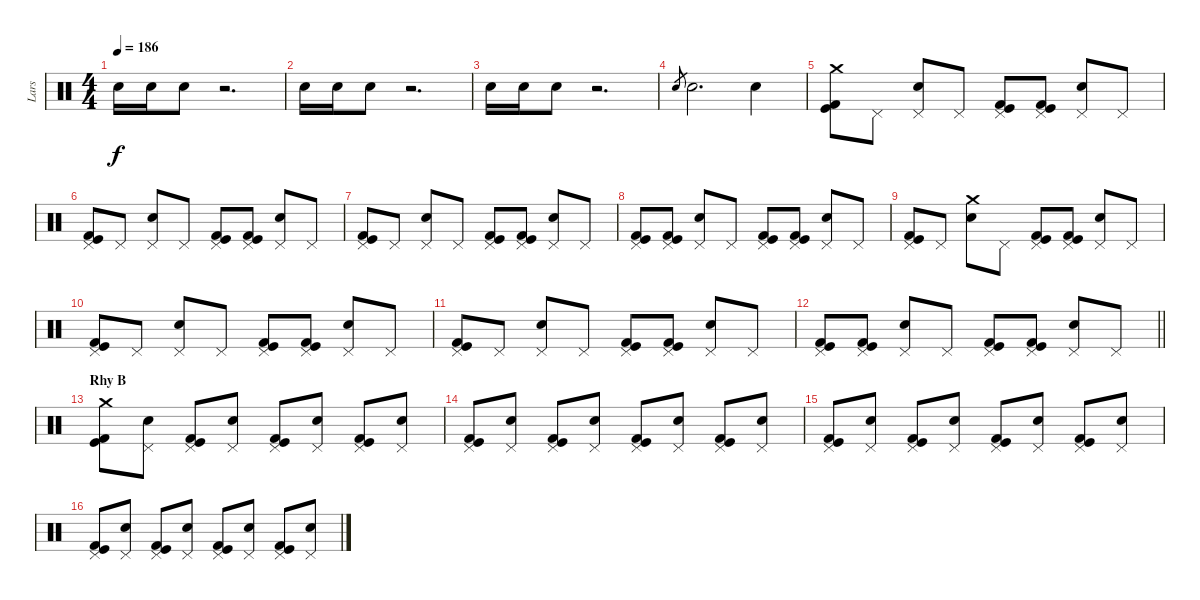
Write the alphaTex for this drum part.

\track ("Lars" "Lars") {instrument percussion}
\staff {score}
\articulation defaults
\ts (4 4)
\tempo 186
\clef neutral
\ks c "Electric Snare (hit)".16{dy f} "Electric Snare (hit)".16 "Electric Snare (hit)".8
r.2{d} |
"Electric Snare (hit)".16 "Electric Snare (hit)".16 "Electric Snare (hit)".8 r.2{d} |
"Electric Snare (hit)".16 "Electric Snare (hit)".16 "Electric Snare (hit)".8 r.2{d} |
"Electric Snare (hit)".8{gr} "Electric Snare (hit)".2{d} "Electric Snare (hit)".4 |
("Crash medium (hit)" "Kick (hit)" "Kick (hit) 2").8 "Pedal Hi-Hat (hit)".8 ("Pedal Hi-Hat (hit)" "Electric Snare (hit)").8 "Pedal Hi-Hat (hit)".8 ("Pedal Hi-Hat (hit)" "Kick (hit)" "Kick (hit) 2").8 ("Pedal Hi-Hat (hit)" "Kick (hit)" "Kick (hit) 2").8 ("Pedal Hi-Hat (hit)" "Electric Snare (hit)").8 "Pedal Hi-Hat (hit)".8 |
("Pedal Hi-Hat (hit)" "Kick (hit)" "Kick (hit) 2").8 "Pedal Hi-Hat (hit)".8 ("Pedal Hi-Hat (hit)" "Electric Snare (hit)").8 "Pedal Hi-Hat (hit)".8 ("Pedal Hi-Hat (hit)" "Kick (hit)" "Kick (hit) 2").8 ("Pedal Hi-Hat (hit)" "Kick (hit)" "Kick (hit) 2").8 ("Pedal Hi-Hat (hit)" "Electric Snare (hit)").8 "Pedal Hi-Hat (hit)".8 |
("Pedal Hi-Hat (hit)" "Kick (hit)" "Kick (hit) 2").8 "Pedal Hi-Hat (hit)".8 ("Pedal Hi-Hat (hit)" "Electric Snare (hit)").8 "Pedal Hi-Hat (hit)".8 ("Pedal Hi-Hat (hit)" "Kick (hit)" "Kick (hit) 2").8 ("Pedal Hi-Hat (hit)" "Kick (hit)" "Kick (hit) 2").8 ("Pedal Hi-Hat (hit)" "Electric Snare (hit)").8 "Pedal Hi-Hat (hit)".8 |
("Pedal Hi-Hat (hit)" "Kick (hit)" "Kick (hit) 2").8 ("Pedal Hi-Hat (hit)" "Kick (hit)" "Kick (hit) 2").8 ("Pedal Hi-Hat (hit)" "Electric Snare (hit)").8 "Pedal Hi-Hat (hit)".8 ("Pedal Hi-Hat (hit)" "Kick (hit)" "Kick (hit) 2").8 ("Pedal Hi-Hat (hit)" "Kick (hit)" "Kick (hit) 2").8 ("Pedal Hi-Hat (hit)" "Electric Snare (hit)").8 "Pedal Hi-Hat (hit)".8 |
("Pedal Hi-Hat (hit)" "Kick (hit)" "Kick (hit) 2").8 "Pedal Hi-Hat (hit)".8 ("Crash medium (hit)" "Electric Snare (hit)").8 "Pedal Hi-Hat (hit)".8 ("Pedal Hi-Hat (hit)" "Kick (hit)" "Kick (hit) 2").8 ("Pedal Hi-Hat (hit)" "Kick (hit)" "Kick (hit) 2").8 ("Pedal Hi-Hat (hit)" "Electric Snare (hit)").8 "Pedal Hi-Hat (hit)".8 |
("Pedal Hi-Hat (hit)" "Kick (hit)" "Kick (hit) 2").8 "Pedal Hi-Hat (hit)".8 ("Pedal Hi-Hat (hit)" "Electric Snare (hit)").8 "Pedal Hi-Hat (hit)".8 ("Pedal Hi-Hat (hit)" "Kick (hit)" "Kick (hit) 2").8 ("Pedal Hi-Hat (hit)" "Kick (hit)" "Kick (hit) 2").8 ("Pedal Hi-Hat (hit)" "Electric Snare (hit)").8 "Pedal Hi-Hat (hit)".8 |
("Pedal Hi-Hat (hit)" "Kick (hit)" "Kick (hit) 2").8 "Pedal Hi-Hat (hit)".8 ("Pedal Hi-Hat (hit)" "Electric Snare (hit)").8 "Pedal Hi-Hat (hit)".8 ("Pedal Hi-Hat (hit)" "Kick (hit)" "Kick (hit) 2").8 ("Pedal Hi-Hat (hit)" "Kick (hit)" "Kick (hit) 2").8 ("Pedal Hi-Hat (hit)" "Electric Snare (hit)").8 "Pedal Hi-Hat (hit)".8 |
\barLineRight lightlight
("Pedal Hi-Hat (hit)" "Kick (hit)" "Kick (hit) 2").8 ("Pedal Hi-Hat (hit)" "Kick (hit)" "Kick (hit) 2").8 ("Pedal Hi-Hat (hit)" "Electric Snare (hit)").8 "Pedal Hi-Hat (hit)".8 ("Pedal Hi-Hat (hit)" "Kick (hit)" "Kick (hit) 2").8 ("Pedal Hi-Hat (hit)" "Kick (hit)" "Kick (hit) 2").8 ("Pedal Hi-Hat (hit)" "Electric Snare (hit)").8 "Pedal Hi-Hat (hit)".8 |
\section ("" "Rhy B")
("Crash medium (hit)" "Kick (hit)" "Kick (hit) 2").8 ("Pedal Hi-Hat (hit)" "Electric Snare (hit)").8 ("Pedal Hi-Hat (hit)" "Kick (hit)" "Kick (hit) 2").8 ("Pedal Hi-Hat (hit)" "Electric Snare (hit)").8 ("Pedal Hi-Hat (hit)" "Kick (hit)" "Kick (hit) 2").8 ("Pedal Hi-Hat (hit)" "Electric Snare (hit)").8 ("Pedal Hi-Hat (hit)" "Kick (hit)" "Kick (hit) 2").8 ("Pedal Hi-Hat (hit)" "Electric Snare (hit)").8 |
("Pedal Hi-Hat (hit)" "Kick (hit)" "Kick (hit) 2").8 ("Pedal Hi-Hat (hit)" "Electric Snare (hit)").8 ("Pedal Hi-Hat (hit)" "Kick (hit)" "Kick (hit) 2").8 ("Pedal Hi-Hat (hit)" "Electric Snare (hit)").8 ("Pedal Hi-Hat (hit)" "Kick (hit)" "Kick (hit) 2").8 ("Pedal Hi-Hat (hit)" "Electric Snare (hit)").8 ("Pedal Hi-Hat (hit)" "Kick (hit)" "Kick (hit) 2").8 ("Pedal Hi-Hat (hit)" "Electric Snare (hit)").8 |
("Pedal Hi-Hat (hit)" "Kick (hit)" "Kick (hit) 2").8 ("Pedal Hi-Hat (hit)" "Electric Snare (hit)").8 ("Pedal Hi-Hat (hit)" "Kick (hit)" "Kick (hit) 2").8 ("Pedal Hi-Hat (hit)" "Electric Snare (hit)").8 ("Pedal Hi-Hat (hit)" "Kick (hit)" "Kick (hit) 2").8 ("Pedal Hi-Hat (hit)" "Electric Snare (hit)").8 ("Pedal Hi-Hat (hit)" "Kick (hit)" "Kick (hit) 2").8 ("Pedal Hi-Hat (hit)" "Electric Snare (hit)").8 |
("Pedal Hi-Hat (hit)" "Kick (hit)" "Kick (hit) 2").8 ("Pedal Hi-Hat (hit)" "Electric Snare (hit)").8 ("Pedal Hi-Hat (hit)" "Kick (hit)" "Kick (hit) 2").8 ("Pedal Hi-Hat (hit)" "Electric Snare (hit)").8 ("Pedal Hi-Hat (hit)" "Kick (hit)" "Kick (hit) 2").8 ("Pedal Hi-Hat (hit)" "Electric Snare (hit)").8 ("Pedal Hi-Hat (hit)" "Kick (hit)" "Kick (hit) 2").8 ("Pedal Hi-Hat (hit)" "Electric Snare (hit)").8
